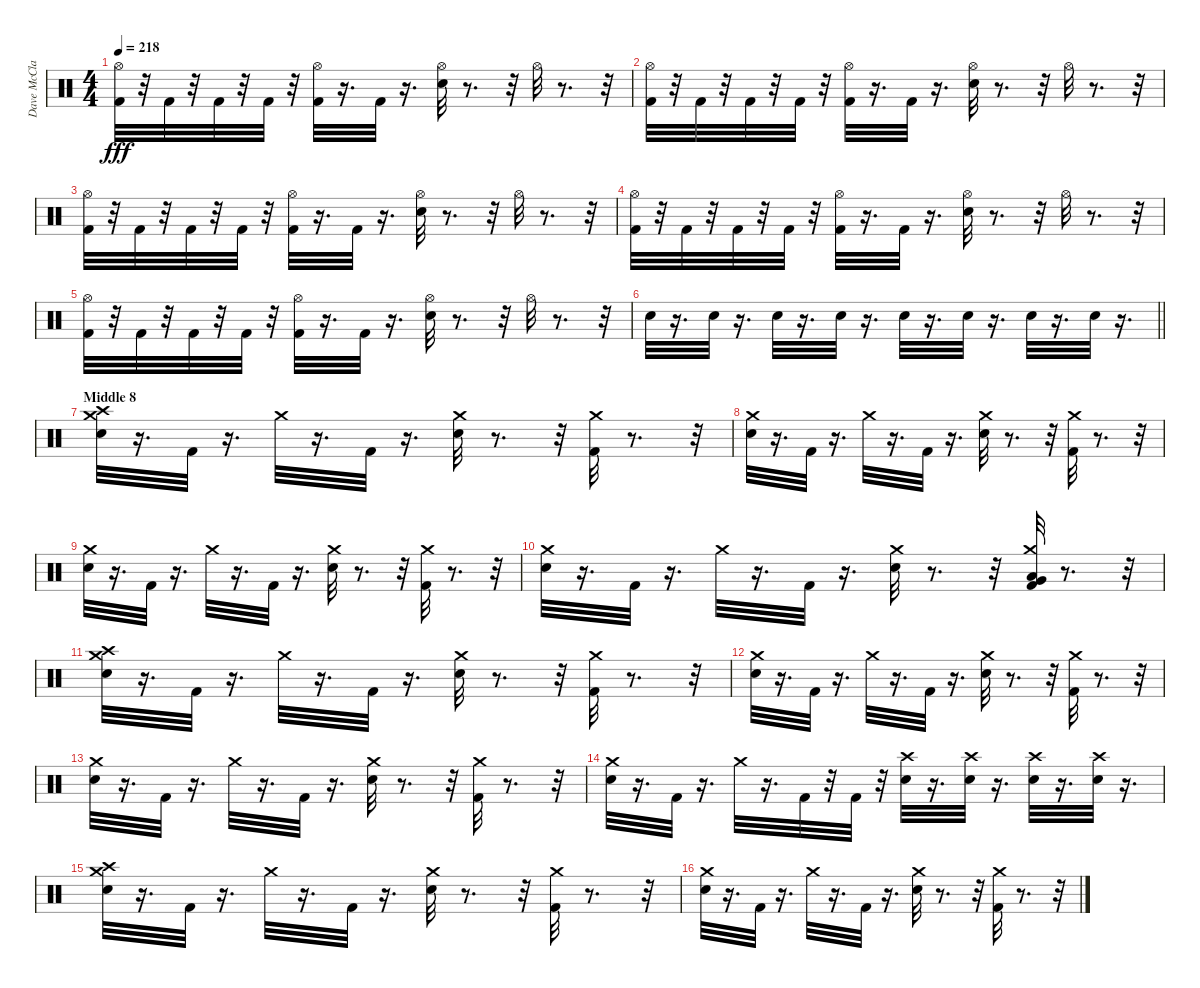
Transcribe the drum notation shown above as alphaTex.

\track ("Dave McClain" "Dave McCla") {instrument percussion}
\staff {score}
\articulation defaults
\ts (4 4)
\tempo 218
\clef neutral
\ks c
("Kick (hit) 2" "Hi-Hat (open)").32{dy fff} r.32 "Kick (hit) 2".32 r.32 "Kick (hit) 2".32 r.32 "Kick (hit) 2".32 r.32 ("Kick (hit) 2" "Hi-Hat (open)").32 r.16{d} "Kick (hit) 2".32 r.16{d} ("Snare (hit) 2" "Hi-Hat (open)").32 r.8{d} r.32 "Hi-Hat (open)".32 r.8{d} r.32 |
("Kick (hit) 2" "Hi-Hat (open)").32 r.32 "Kick (hit) 2".32 r.32 "Kick (hit) 2".32 r.32 "Kick (hit) 2".32 r.32 ("Kick (hit) 2" "Hi-Hat (open)").32 r.16{d} "Kick (hit) 2".32 r.16{d} ("Snare (hit) 2" "Hi-Hat (open)").32 r.8{d} r.32 "Hi-Hat (open)".32 r.8{d} r.32 |
("Hi-Hat (open)" "Kick (hit) 2").32 r.32 "Kick (hit) 2".32 r.32 "Kick (hit) 2".32 r.32 "Kick (hit) 2".32 r.32 ("Hi-Hat (open)" "Kick (hit) 2").32 r.16{d} "Kick (hit) 2".32 r.16{d} ("Hi-Hat (open)" "Snare (hit) 2").32 r.8{d} r.32 "Hi-Hat (open)".32 r.8{d} r.32 |
("Kick (hit) 2" "Hi-Hat (open)").32 r.32 "Kick (hit) 2".32 r.32 "Kick (hit) 2".32 r.32 "Kick (hit) 2".32 r.32 ("Kick (hit) 2" "Hi-Hat (open)").32 r.16{d} "Kick (hit) 2".32 r.16{d} ("Snare (hit) 2" "Hi-Hat (open)").32 r.8{d} r.32 "Hi-Hat (open)".32 r.8{d} r.32 |
("Kick (hit) 2" "Hi-Hat (open)").32 r.32 "Kick (hit) 2".32 r.32 "Kick (hit) 2".32 r.32 "Kick (hit) 2".32 r.32 ("Kick (hit) 2" "Hi-Hat (open)").32 r.16{d} "Kick (hit) 2".32 r.16{d} ("Snare (hit) 2" "Hi-Hat (open)").32 r.8{d} r.32 "Hi-Hat (open)".32 r.8{d} r.32 |
\barLineRight lightlight "Snare (hit) 2".32
r.16{d} "Snare (hit) 2".32 r.16{d} "Snare (hit) 2".32 r.16{d} "Snare (hit) 2".32 r.16{d} "Snare (hit) 2".32 r.16{d} "Snare (hit) 2".32 r.16{d} "Snare (hit) 2".32 r.16{d} "Snare (hit) 2".32 r.16{d} |
\section ("" "Middle 8")
("Snare (hit) 2" "Crash medium (hit)" "Crash high (hit)").32 r.16{d} "Kick (hit) 2".32 r.16{d} "Crash medium (hit)".32 r.16{d} "Kick (hit) 2".32 r.16{d} ("Crash medium (hit)" "Snare (hit) 2").32 r.8{d} r.32 ("Kick (hit) 2" "Crash medium (hit)").32 r.8{d} r.32 |
("Snare (hit) 2" "Crash medium (hit)").32 r.16{d} "Kick (hit) 2".32 r.16{d} "Crash medium (hit)".32 r.16{d} "Kick (hit) 2".32 r.16{d} ("Snare (hit) 2" "Crash medium (hit)").32 r.8{d} r.32 ("Kick (hit) 2" "Crash medium (hit)").32 r.8{d} r.32 |
("Snare (hit) 2" "Crash medium (hit)").32 r.16{d} "Kick (hit) 2".32 r.16{d} "Crash medium (hit)".32 r.16{d} "Kick (hit) 2".32 r.16{d} ("Snare (hit) 2" "Crash medium (hit)").32 r.8{d} r.32 ("Kick (hit) 2" "Crash medium (hit)").32 r.8{d} r.32 |
("Snare (hit) 2" "Crash medium (hit)").32 r.16{d} "Kick (hit) 2".32 r.16{d} "Crash medium (hit)".32 r.16{d} "Kick (hit) 2".32 r.16{d} ("Snare (hit) 2" "Crash medium (hit)").32 r.8{d} r.32 ("Very Low Tom (hit)" "Low Floor Tom (hit)" "Kick (hit) 2" "Crash medium (hit)").32 r.8{d} r.32 |
("Snare (hit) 2" "Crash medium (hit)" "Crash high (hit)").32 r.16{d} "Kick (hit) 2".32 r.16{d} "Crash medium (hit)".32 r.16{d} "Kick (hit) 2".32 r.16{d} ("Crash medium (hit)" "Snare (hit) 2").32 r.8{d} r.32 ("Kick (hit) 2" "Crash medium (hit)").32 r.8{d} r.32 |
("Snare (hit) 2" "Crash medium (hit)").32 r.16{d} "Kick (hit) 2".32 r.16{d} "Crash medium (hit)".32 r.16{d} "Kick (hit) 2".32 r.16{d} ("Snare (hit) 2" "Crash medium (hit)").32 r.8{d} r.32 ("Kick (hit) 2" "Crash medium (hit)").32 r.8{d} r.32 |
("Snare (hit) 2" "Crash medium (hit)").32 r.16{d} "Kick (hit) 2".32 r.16{d} "Crash medium (hit)".32 r.16{d} "Kick (hit) 2".32 r.16{d} ("Snare (hit) 2" "Crash medium (hit)").32 r.8{d} r.32 ("Kick (hit) 2" "Crash medium (hit)").32 r.8{d} r.32 |
("Snare (hit) 2" "Crash medium (hit)").32 r.16{d} "Kick (hit) 2".32 r.16{d} "Crash medium (hit)".32 r.16{d} "Kick (hit) 2".32 r.32 "Kick (hit) 2".32 r.32 ("Crash high (hit)" "Snare (hit) 2").32 r.16{d} ("Crash high (hit)" "Snare (hit) 2").32 r.16{d} ("Crash high (hit)" "Snare (hit) 2").32 r.16{d} ("Snare (hit) 2" "Crash high (hit)").32 r.16{d} |
("Snare (hit) 2" "Crash medium (hit)" "Crash high (hit)").32 r.16{d} "Kick (hit) 2".32 r.16{d} "Crash medium (hit)".32 r.16{d} "Kick (hit) 2".32 r.16{d} ("Crash medium (hit)" "Snare (hit) 2").32 r.8{d} r.32 ("Kick (hit) 2" "Crash medium (hit)").32 r.8{d} r.32 |
("Snare (hit) 2" "Crash medium (hit)").32 r.16{d} "Kick (hit) 2".32 r.16{d} "Crash medium (hit)".32 r.16{d} "Kick (hit) 2".32 r.16{d} ("Snare (hit) 2" "Crash medium (hit)").32 r.8{d} r.32 ("Kick (hit) 2" "Crash medium (hit)").32 r.8{d} r.32
